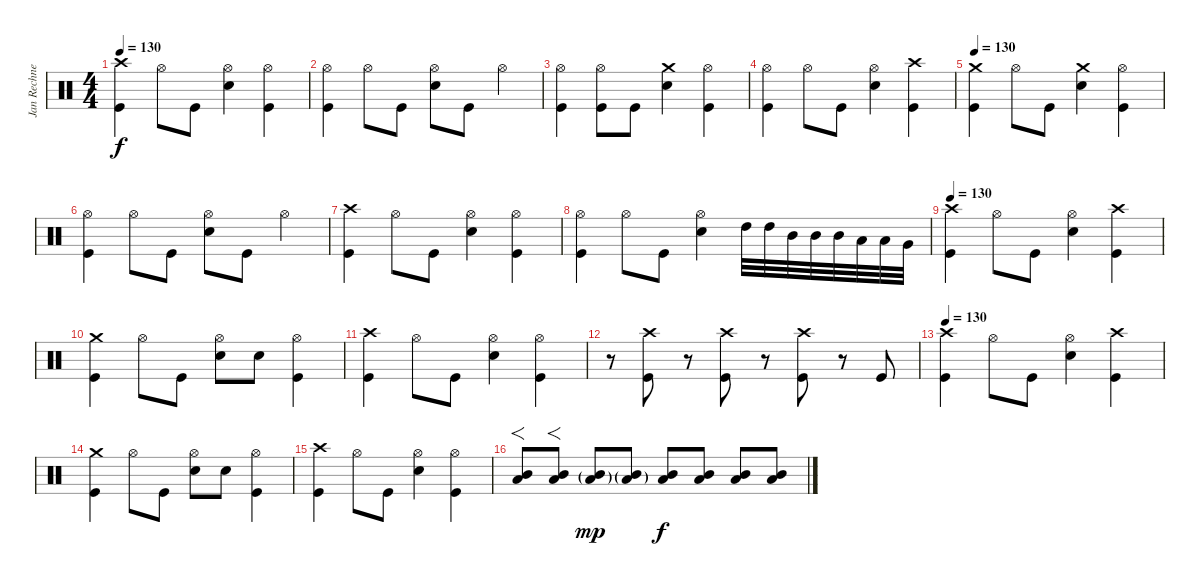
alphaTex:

\track ("Jan Rechnerger" "Jan Rechne") {instrument percussion}
\staff {score}
\articulation defaults
\ts (4 4)
\tempo 130
\clef neutral
\ks c
("Kick (hit)" "Crash high (hit)").4{dy f} "Hi-Hat (open)".8 "Kick (hit)".8 ("Snare (hit) 2" "Hi-Hat (open)").4 ("Kick (hit)" "Hi-Hat (open)").4 |
("Kick (hit)" "Hi-Hat (open)").4 "Hi-Hat (open)".8 "Kick (hit)".8 ("Snare (hit) 2" "Hi-Hat (open)").8 "Kick (hit)".8 "Hi-Hat (open)".4 |
("Kick (hit)" "Hi-Hat (open)").4 ("Kick (hit)" "Hi-Hat (open)").8 "Kick (hit)".8 ("Snare (hit) 2" "Crash medium (hit)").4 ("Kick (hit)" "Hi-Hat (open)").4 |
("Kick (hit)" "Hi-Hat (open)").4 "Hi-Hat (open)".8 "Kick (hit)".8 ("Snare (hit) 2" "Hi-Hat (open)").4 ("Kick (hit)" "Crash high (hit)").4 |
\tempo 130
("Kick (hit)" "Crash medium (hit)").4 "Hi-Hat (open)".8 "Kick (hit)".8 ("Snare (hit) 2" "Crash medium (hit)").4 ("Kick (hit)" "Hi-Hat (open)").4 |
("Kick (hit)" "Hi-Hat (open)").4 "Hi-Hat (open)".8 "Kick (hit)".8 ("Snare (hit) 2" "Hi-Hat (open)").8 "Kick (hit)".8 "Hi-Hat (open)".4 |
("Kick (hit)" "Crash high (hit)").4 "Hi-Hat (open)".8 "Kick (hit)".8 ("Snare (hit) 2" "Hi-Hat (open)").4 ("Kick (hit)" "Hi-Hat (open)").4 |
("Kick (hit)" "Hi-Hat (open)").4 "Hi-Hat (open)".8 "Kick (hit)".8 ("Snare (hit) 2" "Hi-Hat (open)").4 "High Tom (hit)".32 "High Tom (hit)".32 "Mid Tom (hit)".32 "Mid Tom (hit)".32 "Mid Tom (hit)".32 "Low Tom (hit)".32 "Low Tom (hit)".32 "Very Low Tom (hit)".32 |
\tempo 130
("Kick (hit)" "Crash high (hit)").4 "Hi-Hat (open)".8 "Kick (hit)".8 ("Snare (hit) 2" "Hi-Hat (open)").4 ("Kick (hit)" "Crash high (hit)").4 |
("Kick (hit)" "Crash medium (hit)").4 "Hi-Hat (open)".8 "Kick (hit)".8 ("Snare (hit) 2" "Hi-Hat (open)").8 "Snare (hit) 2".8 ("Kick (hit)" "Hi-Hat (open)").4 |
("Kick (hit)" "Crash high (hit)").4 "Hi-Hat (open)".8 "Kick (hit)".8 ("Snare (hit) 2" "Hi-Hat (open)").4 ("Kick (hit)" "Hi-Hat (open)").4 |
r.8 ("Kick (hit)" "Crash high (hit)").8 r.8 ("Kick (hit)" "Crash high (hit)").8 r.8 ("Kick (hit)" "Crash high (hit)").8 r.8 "Kick (hit)".8 |
\tempo 130
("Kick (hit)" "Crash high (hit)").4 "Hi-Hat (open)".8 "Kick (hit)".8 ("Snare (hit) 2" "Hi-Hat (open)").4 ("Kick (hit)" "Crash high (hit)").4 |
("Kick (hit)" "Crash medium (hit)").4 "Hi-Hat (open)".8 "Kick (hit)".8 ("Snare (hit) 2" "Hi-Hat (open)").8 "Snare (hit) 2".8 ("Kick (hit)" "Hi-Hat (open)").4 |
("Kick (hit)" "Crash high (hit)").4 "Hi-Hat (open)".8 "Kick (hit)".8 ("Snare (hit) 2" "Hi-Hat (open)").4 ("Kick (hit)" "Hi-Hat (open)").4 |
("Mid Tom (hit)" "Low Tom (hit)").8{f} ("Mid Tom (hit)" "Low Tom (hit)").8{f} ("Mid Tom (hit)"{g} "Low Tom (hit)"{g}).8{dy mp} ("Mid Tom (hit)"{g} "Low Tom (hit)"{g}).8 ("Mid Tom (hit)" "Low Tom (hit)").8{dy f} ("Mid Tom (hit)" "Low Tom (hit)").8 ("Mid Tom (hit)" "Low Tom (hit)").8 ("Mid Tom (hit)" "Low Tom (hit)").8
